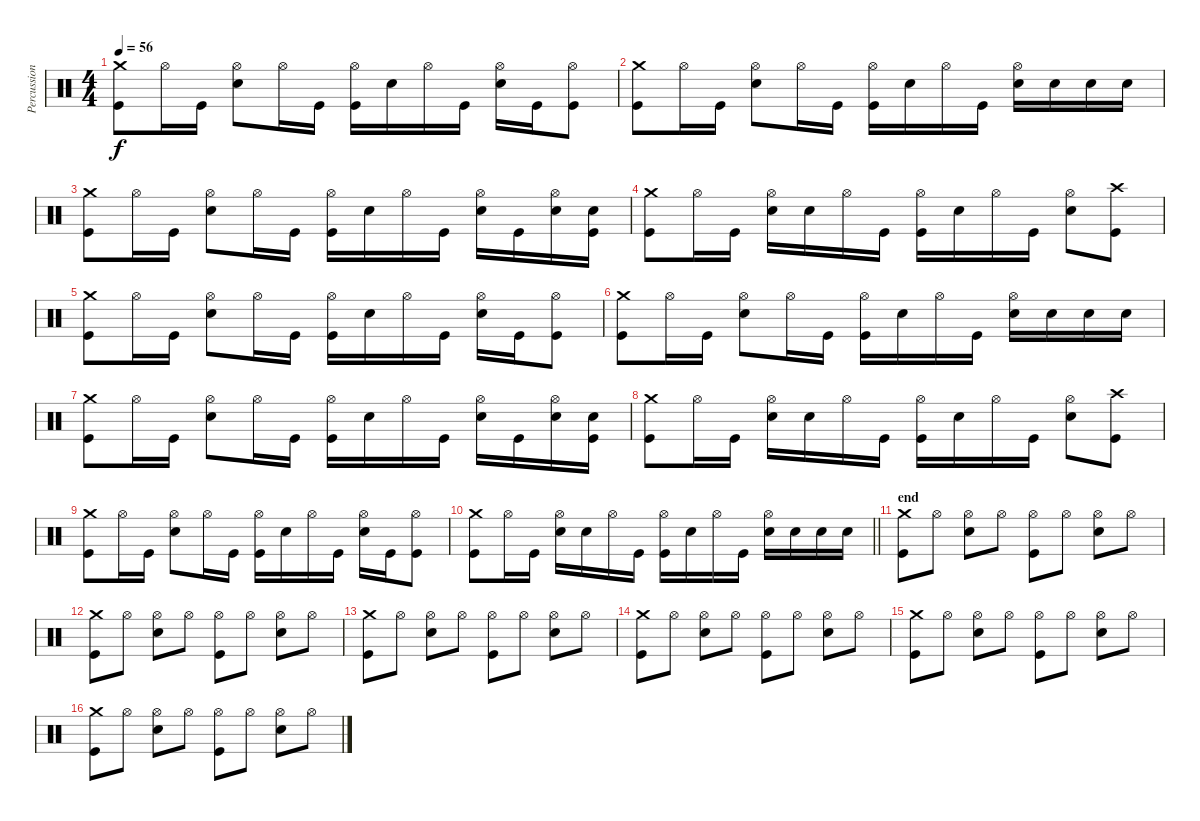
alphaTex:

\track ("Percussion" "Percussion") {instrument percussion}
\staff {score}
\articulation defaults
\ts (4 4)
\tempo 56
\clef neutral
\ks c
("Crash medium (hit)" "Kick (hit)").8{dy f} "Hi-Hat (open)".16 "Kick (hit)".16 ("Hi-Hat (open)" "Electric Snare (hit)").8 "Hi-Hat (open)".16 "Kick (hit)".16 ("Hi-Hat (open)" "Kick (hit)").16 "Electric Snare (hit)".16 "Hi-Hat (open)".16 "Kick (hit)".16 ("Hi-Hat (open)" "Electric Snare (hit)").16 "Kick (hit)".16 ("Hi-Hat (open)" "Kick (hit)").8 |
("Crash medium (hit)" "Kick (hit)").8 "Hi-Hat (open)".16 "Kick (hit)".16 ("Hi-Hat (open)" "Electric Snare (hit)").8 "Hi-Hat (open)".16 "Kick (hit)".16 ("Hi-Hat (open)" "Kick (hit)").16 "Electric Snare (hit)".16 "Hi-Hat (open)".16 "Kick (hit)".16 ("Hi-Hat (open)" "Electric Snare (hit)").16 "Electric Snare (hit)".16 "Electric Snare (hit)".16 "Electric Snare (hit)".16 |
("Crash medium (hit)" "Kick (hit)").8 "Hi-Hat (open)".16 "Kick (hit)".16 ("Hi-Hat (open)" "Electric Snare (hit)").8 "Hi-Hat (open)".16 "Kick (hit)".16 ("Hi-Hat (open)" "Kick (hit)").16 "Electric Snare (hit)".16 "Hi-Hat (open)".16 "Kick (hit)".16 ("Hi-Hat (open)" "Electric Snare (hit)").16 "Kick (hit)".16 ("Hi-Hat (open)" "Electric Snare (hit)").16 ("Electric Snare (hit)" "Kick (hit)").16 |
("Crash medium (hit)" "Kick (hit)").8 "Hi-Hat (open)".16 "Kick (hit)".16 ("Hi-Hat (open)" "Electric Snare (hit)").16 "Electric Snare (hit)".16 "Hi-Hat (open)".16 "Kick (hit)".16 ("Hi-Hat (open)" "Kick (hit)").16 "Electric Snare (hit)".16 "Hi-Hat (open)".16 "Kick (hit)".16 ("Hi-Hat (open)" "Electric Snare (hit)").8 ("Crash high (hit)" "Kick (hit)").8 |
("Crash medium (hit)" "Kick (hit)").8 "Hi-Hat (open)".16 "Kick (hit)".16 ("Hi-Hat (open)" "Electric Snare (hit)").8 "Hi-Hat (open)".16 "Kick (hit)".16 ("Hi-Hat (open)" "Kick (hit)").16 "Electric Snare (hit)".16 "Hi-Hat (open)".16 "Kick (hit)".16 ("Hi-Hat (open)" "Electric Snare (hit)").16 "Kick (hit)".16 ("Hi-Hat (open)" "Kick (hit)").8 |
("Crash medium (hit)" "Kick (hit)").8 "Hi-Hat (open)".16 "Kick (hit)".16 ("Hi-Hat (open)" "Electric Snare (hit)").8 "Hi-Hat (open)".16 "Kick (hit)".16 ("Hi-Hat (open)" "Kick (hit)").16 "Electric Snare (hit)".16 "Hi-Hat (open)".16 "Kick (hit)".16 ("Hi-Hat (open)" "Electric Snare (hit)").16 "Electric Snare (hit)".16 "Electric Snare (hit)".16 "Electric Snare (hit)".16 |
("Crash medium (hit)" "Kick (hit)").8 "Hi-Hat (open)".16 "Kick (hit)".16 ("Hi-Hat (open)" "Electric Snare (hit)").8 "Hi-Hat (open)".16 "Kick (hit)".16 ("Hi-Hat (open)" "Kick (hit)").16 "Electric Snare (hit)".16 "Hi-Hat (open)".16 "Kick (hit)".16 ("Hi-Hat (open)" "Electric Snare (hit)").16 "Kick (hit)".16 ("Hi-Hat (open)" "Electric Snare (hit)").16 ("Electric Snare (hit)" "Kick (hit)").16 |
("Crash medium (hit)" "Kick (hit)").8 "Hi-Hat (open)".16 "Kick (hit)".16 ("Hi-Hat (open)" "Electric Snare (hit)").16 "Electric Snare (hit)".16 "Hi-Hat (open)".16 "Kick (hit)".16 ("Hi-Hat (open)" "Kick (hit)").16 "Electric Snare (hit)".16 "Hi-Hat (open)".16 "Kick (hit)".16 ("Hi-Hat (open)" "Electric Snare (hit)").8 ("Crash high (hit)" "Kick (hit)").8 |
("Crash medium (hit)" "Kick (hit)").8 "Hi-Hat (open)".16 "Kick (hit)".16 ("Hi-Hat (open)" "Electric Snare (hit)").8 "Hi-Hat (open)".16 "Kick (hit)".16 ("Hi-Hat (open)" "Kick (hit)").16 "Electric Snare (hit)".16 "Hi-Hat (open)".16 "Kick (hit)".16 ("Hi-Hat (open)" "Electric Snare (hit)").16 "Kick (hit)".16 ("Hi-Hat (open)" "Kick (hit)").8 |
\barLineRight lightlight
("Crash medium (hit)" "Kick (hit)").8 "Hi-Hat (open)".16 "Kick (hit)".16 ("Hi-Hat (open)" "Electric Snare (hit)").16 "Electric Snare (hit)".16 "Hi-Hat (open)".16 "Kick (hit)".16 ("Hi-Hat (open)" "Kick (hit)").16 "Electric Snare (hit)".16 "Hi-Hat (open)".16 "Kick (hit)".16 ("Hi-Hat (open)" "Electric Snare (hit)").16 "Electric Snare (hit)".16 "Electric Snare (hit)".16 "Electric Snare (hit)".16 |
\section ("" "end")
("Crash medium (hit)" "Kick (hit)").8 "Hi-Hat (open)".8 ("Hi-Hat (open)" "Electric Snare (hit)").8 "Hi-Hat (open)".8 ("Hi-Hat (open)" "Kick (hit)").8 "Hi-Hat (open)".8 ("Hi-Hat (open)" "Electric Snare (hit)").8 "Hi-Hat (open)".8 |
("Crash medium (hit)" "Kick (hit)").8 "Hi-Hat (open)".8 ("Hi-Hat (open)" "Electric Snare (hit)").8 "Hi-Hat (open)".8 ("Hi-Hat (open)" "Kick (hit)").8 "Hi-Hat (open)".8 ("Hi-Hat (open)" "Electric Snare (hit)").8 "Hi-Hat (open)".8 |
("Crash medium (hit)" "Kick (hit)").8 "Hi-Hat (open)".8 ("Hi-Hat (open)" "Electric Snare (hit)").8 "Hi-Hat (open)".8 ("Hi-Hat (open)" "Kick (hit)").8 "Hi-Hat (open)".8 ("Hi-Hat (open)" "Electric Snare (hit)").8 "Hi-Hat (open)".8 |
("Crash medium (hit)" "Kick (hit)").8 "Hi-Hat (open)".8 ("Hi-Hat (open)" "Electric Snare (hit)").8 "Hi-Hat (open)".8 ("Hi-Hat (open)" "Kick (hit)").8 "Hi-Hat (open)".8 ("Hi-Hat (open)" "Electric Snare (hit)").8 "Hi-Hat (open)".8 |
("Crash medium (hit)" "Kick (hit)").8 "Hi-Hat (open)".8 ("Hi-Hat (open)" "Electric Snare (hit)").8 "Hi-Hat (open)".8 ("Hi-Hat (open)" "Kick (hit)").8 "Hi-Hat (open)".8 ("Hi-Hat (open)" "Electric Snare (hit)").8 "Hi-Hat (open)".8 |
("Crash medium (hit)" "Kick (hit)").8 "Hi-Hat (open)".8 ("Hi-Hat (open)" "Electric Snare (hit)").8 "Hi-Hat (open)".8 ("Hi-Hat (open)" "Kick (hit)").8 "Hi-Hat (open)".8 ("Hi-Hat (open)" "Electric Snare (hit)").8 "Hi-Hat (open)".8
